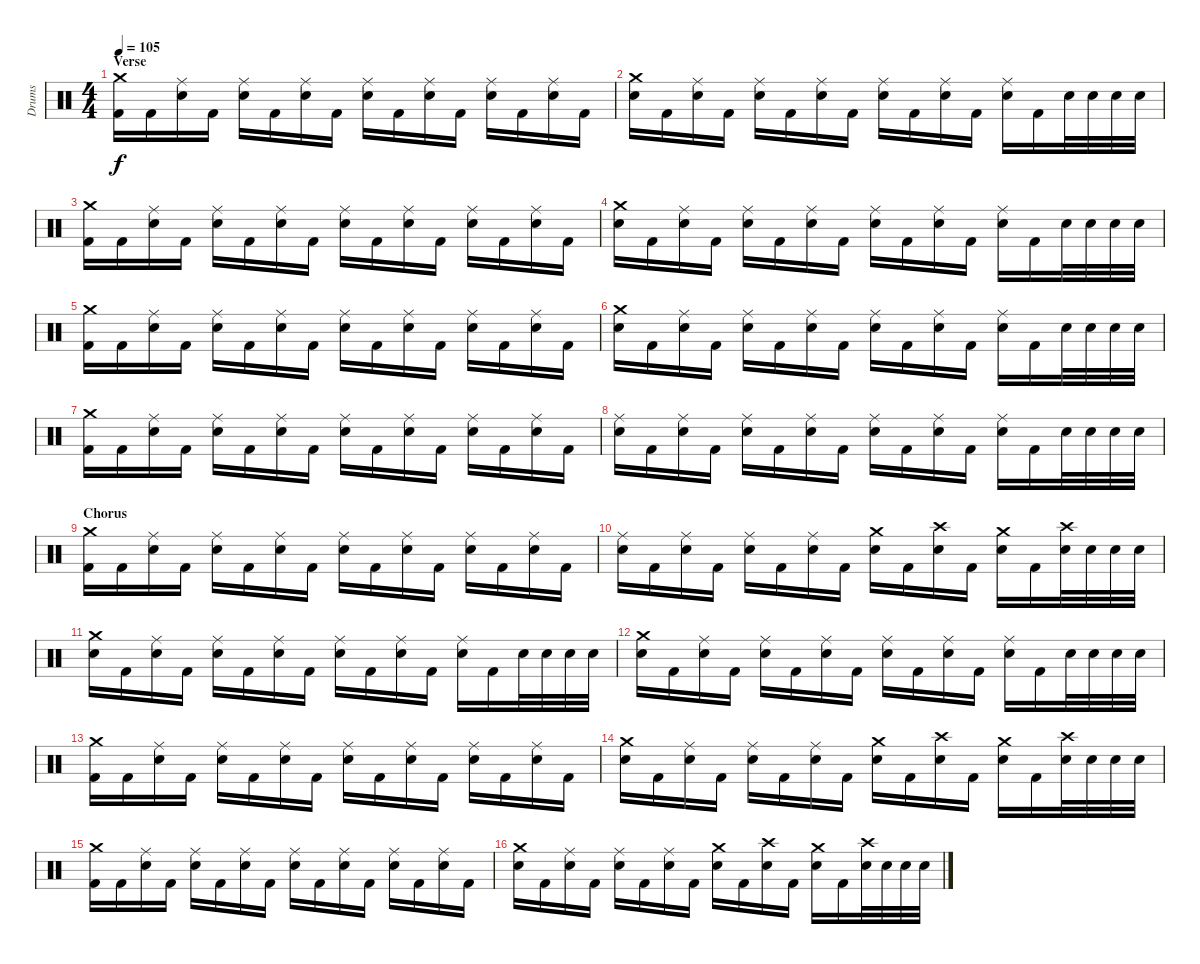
\track ("Drums" "Drums") {instrument percussion}
\staff {score}
\articulation defaults
\ts (4 4)
\section ("" "Verse")
\tempo 105
\clef neutral
\ks c
("Crash medium (hit)" "Kick (hit) 2").16{dy f} "Kick (hit) 2".16 ("Ride (middle)" "Electric Snare (hit)").16 "Kick (hit) 2".16 ("Ride (middle)" "Electric Snare (hit)").16 "Kick (hit) 2".16 ("Ride (middle)" "Electric Snare (hit)").16 "Kick (hit) 2".16 ("Ride (middle)" "Electric Snare (hit)").16 "Kick (hit) 2".16 ("Ride (middle)" "Electric Snare (hit)").16 "Kick (hit) 2".16 ("Ride (middle)" "Electric Snare (hit)").16 "Kick (hit) 2".16 ("Ride (middle)" "Electric Snare (hit)").16 "Kick (hit) 2".16 |
("Crash medium (hit)" "Electric Snare (hit)").16 "Kick (hit) 2".16 ("Ride (middle)" "Electric Snare (hit)").16 "Kick (hit) 2".16 ("Ride (middle)" "Electric Snare (hit)").16 "Kick (hit) 2".16 ("Ride (middle)" "Electric Snare (hit)").16 "Kick (hit) 2".16 ("Ride (middle)" "Electric Snare (hit)").16 "Kick (hit) 2".16 ("Ride (middle)" "Electric Snare (hit)").16 "Kick (hit) 2".16 ("Ride (middle)" "Electric Snare (hit)").16 "Kick (hit) 2".16 "Electric Snare (hit)".32 "Electric Snare (hit)".32 "Electric Snare (hit)".32 "Electric Snare (hit)".32 |
("Crash medium (hit)" "Kick (hit) 2").16 "Kick (hit) 2".16 ("Ride (middle)" "Electric Snare (hit)").16 "Kick (hit) 2".16 ("Ride (middle)" "Electric Snare (hit)").16 "Kick (hit) 2".16 ("Ride (middle)" "Electric Snare (hit)").16 "Kick (hit) 2".16 ("Ride (middle)" "Electric Snare (hit)").16 "Kick (hit) 2".16 ("Ride (middle)" "Electric Snare (hit)").16 "Kick (hit) 2".16 ("Ride (middle)" "Electric Snare (hit)").16 "Kick (hit) 2".16 ("Ride (middle)" "Electric Snare (hit)").16 "Kick (hit) 2".16 |
("Crash medium (hit)" "Electric Snare (hit)").16 "Kick (hit) 2".16 ("Ride (middle)" "Electric Snare (hit)").16 "Kick (hit) 2".16 ("Ride (middle)" "Electric Snare (hit)").16 "Kick (hit) 2".16 ("Ride (middle)" "Electric Snare (hit)").16 "Kick (hit) 2".16 ("Ride (middle)" "Electric Snare (hit)").16 "Kick (hit) 2".16 ("Ride (middle)" "Electric Snare (hit)").16 "Kick (hit) 2".16 ("Ride (middle)" "Electric Snare (hit)").16 "Kick (hit) 2".16 "Electric Snare (hit)".32 "Electric Snare (hit)".32 "Electric Snare (hit)".32 "Electric Snare (hit)".32 |
("Crash medium (hit)" "Kick (hit) 2").16 "Kick (hit) 2".16 ("Ride (middle)" "Electric Snare (hit)").16 "Kick (hit) 2".16 ("Ride (middle)" "Electric Snare (hit)").16 "Kick (hit) 2".16 ("Ride (middle)" "Electric Snare (hit)").16 "Kick (hit) 2".16 ("Ride (middle)" "Electric Snare (hit)").16 "Kick (hit) 2".16 ("Ride (middle)" "Electric Snare (hit)").16 "Kick (hit) 2".16 ("Ride (middle)" "Electric Snare (hit)").16 "Kick (hit) 2".16 ("Ride (middle)" "Electric Snare (hit)").16 "Kick (hit) 2".16 |
("Crash medium (hit)" "Electric Snare (hit)").16 "Kick (hit) 2".16 ("Ride (middle)" "Electric Snare (hit)").16 "Kick (hit) 2".16 ("Ride (middle)" "Electric Snare (hit)").16 "Kick (hit) 2".16 ("Ride (middle)" "Electric Snare (hit)").16 "Kick (hit) 2".16 ("Ride (middle)" "Electric Snare (hit)").16 "Kick (hit) 2".16 ("Ride (middle)" "Electric Snare (hit)").16 "Kick (hit) 2".16 ("Ride (middle)" "Electric Snare (hit)").16 "Kick (hit) 2".16 "Electric Snare (hit)".32 "Electric Snare (hit)".32 "Electric Snare (hit)".32 "Electric Snare (hit)".32 |
("Crash medium (hit)" "Kick (hit) 2").16 "Kick (hit) 2".16 ("Ride (middle)" "Electric Snare (hit)").16 "Kick (hit) 2".16 ("Ride (middle)" "Electric Snare (hit)").16 "Kick (hit) 2".16 ("Ride (middle)" "Electric Snare (hit)").16 "Kick (hit) 2".16 ("Ride (middle)" "Electric Snare (hit)").16 "Kick (hit) 2".16 ("Ride (middle)" "Electric Snare (hit)").16 "Kick (hit) 2".16 ("Ride (middle)" "Electric Snare (hit)").16 "Kick (hit) 2".16 ("Ride (middle)" "Electric Snare (hit)").16 "Kick (hit) 2".16 |
("Ride (middle)" "Electric Snare (hit)").16 "Kick (hit) 2".16 ("Ride (middle)" "Electric Snare (hit)").16 "Kick (hit) 2".16 ("Ride (middle)" "Electric Snare (hit)").16 "Kick (hit) 2".16 ("Ride (middle)" "Electric Snare (hit)").16 "Kick (hit) 2".16 ("Ride (middle)" "Electric Snare (hit)").16 "Kick (hit) 2".16 ("Ride (middle)" "Electric Snare (hit)").16 "Kick (hit) 2".16 ("Ride (middle)" "Electric Snare (hit)").16 "Kick (hit) 2".16 "Electric Snare (hit)".32 "Electric Snare (hit)".32 "Electric Snare (hit)".32 "Electric Snare (hit)".32 |
\section ("" "Chorus")
("Crash medium (hit)" "Kick (hit) 2").16 "Kick (hit) 2".16 ("Ride (middle)" "Electric Snare (hit)").16 "Kick (hit) 2".16 ("Ride (middle)" "Electric Snare (hit)").16 "Kick (hit) 2".16 ("Ride (middle)" "Electric Snare (hit)").16 "Kick (hit) 2".16 ("Ride (middle)" "Electric Snare (hit)").16 "Kick (hit) 2".16 ("Ride (middle)" "Electric Snare (hit)").16 "Kick (hit) 2".16 ("Ride (middle)" "Electric Snare (hit)").16 "Kick (hit) 2".16 ("Ride (middle)" "Electric Snare (hit)").16 "Kick (hit) 2".16 |
("Ride (middle)" "Electric Snare (hit)").16 "Kick (hit) 2".16 ("Ride (middle)" "Electric Snare (hit)").16 "Kick (hit) 2".16 ("Ride (middle)" "Electric Snare (hit)").16 "Kick (hit) 2".16 ("Ride (middle)" "Electric Snare (hit)").16 "Kick (hit) 2".16 ("Crash medium (hit)" "Electric Snare (hit)").16 "Kick (hit) 2".16 ("Crash high (hit)" "Electric Snare (hit)").16 "Kick (hit) 2".16 ("Crash medium (hit)" "Electric Snare (hit)").16 "Kick (hit) 2".16 ("Crash high (hit)" "Electric Snare (hit)").32 "Electric Snare (hit)".32 "Electric Snare (hit)".32 "Electric Snare (hit)".32 |
("Crash medium (hit)" "Electric Snare (hit)").16 "Kick (hit) 2".16 ("Ride (middle)" "Electric Snare (hit)").16 "Kick (hit) 2".16 ("Ride (middle)" "Electric Snare (hit)").16 "Kick (hit) 2".16 ("Ride (middle)" "Electric Snare (hit)").16 "Kick (hit) 2".16 ("Ride (middle)" "Electric Snare (hit)").16 "Kick (hit) 2".16 ("Ride (middle)" "Electric Snare (hit)").16 "Kick (hit) 2".16 ("Ride (middle)" "Electric Snare (hit)").16 "Kick (hit) 2".16 "Electric Snare (hit)".32 "Electric Snare (hit)".32 "Electric Snare (hit)".32 "Electric Snare (hit)".32 |
("Crash medium (hit)" "Electric Snare (hit)").16 "Kick (hit) 2".16 ("Ride (middle)" "Electric Snare (hit)").16 "Kick (hit) 2".16 ("Ride (middle)" "Electric Snare (hit)").16 "Kick (hit) 2".16 ("Ride (middle)" "Electric Snare (hit)").16 "Kick (hit) 2".16 ("Ride (middle)" "Electric Snare (hit)").16 "Kick (hit) 2".16 ("Ride (middle)" "Electric Snare (hit)").16 "Kick (hit) 2".16 ("Ride (middle)" "Electric Snare (hit)").16 "Kick (hit) 2".16 "Electric Snare (hit)".32 "Electric Snare (hit)".32 "Electric Snare (hit)".32 "Electric Snare (hit)".32 |
("Crash medium (hit)" "Kick (hit) 2").16 "Kick (hit) 2".16 ("Ride (middle)" "Electric Snare (hit)").16 "Kick (hit) 2".16 ("Ride (middle)" "Electric Snare (hit)").16 "Kick (hit) 2".16 ("Ride (middle)" "Electric Snare (hit)").16 "Kick (hit) 2".16 ("Ride (middle)" "Electric Snare (hit)").16 "Kick (hit) 2".16 ("Ride (middle)" "Electric Snare (hit)").16 "Kick (hit) 2".16 ("Ride (middle)" "Electric Snare (hit)").16 "Kick (hit) 2".16 ("Ride (middle)" "Electric Snare (hit)").16 "Kick (hit) 2".16 |
("Crash medium (hit)" "Electric Snare (hit)").16 "Kick (hit) 2".16 ("Ride (middle)" "Electric Snare (hit)").16 "Kick (hit) 2".16 ("Ride (middle)" "Electric Snare (hit)").16 "Kick (hit) 2".16 ("Ride (middle)" "Electric Snare (hit)").16 "Kick (hit) 2".16 ("Crash medium (hit)" "Electric Snare (hit)").16 "Kick (hit) 2".16 ("Crash high (hit)" "Electric Snare (hit)").16 "Kick (hit) 2".16 ("Crash medium (hit)" "Electric Snare (hit)").16 "Kick (hit) 2".16 ("Crash high (hit)" "Electric Snare (hit)").32 "Electric Snare (hit)".32 "Electric Snare (hit)".32 "Electric Snare (hit)".32 |
("Crash medium (hit)" "Kick (hit) 2").16 "Kick (hit) 2".16 ("Ride (middle)" "Electric Snare (hit)").16 "Kick (hit) 2".16 ("Ride (middle)" "Electric Snare (hit)").16 "Kick (hit) 2".16 ("Ride (middle)" "Electric Snare (hit)").16 "Kick (hit) 2".16 ("Ride (middle)" "Electric Snare (hit)").16 "Kick (hit) 2".16 ("Ride (middle)" "Electric Snare (hit)").16 "Kick (hit) 2".16 ("Ride (middle)" "Electric Snare (hit)").16 "Kick (hit) 2".16 ("Ride (middle)" "Electric Snare (hit)").16 "Kick (hit) 2".16 |
("Crash medium (hit)" "Electric Snare (hit)").16 "Kick (hit) 2".16 ("Ride (middle)" "Electric Snare (hit)").16 "Kick (hit) 2".16 ("Ride (middle)" "Electric Snare (hit)").16 "Kick (hit) 2".16 ("Ride (middle)" "Electric Snare (hit)").16 "Kick (hit) 2".16 ("Crash medium (hit)" "Electric Snare (hit)").16 "Kick (hit) 2".16 ("Crash high (hit)" "Electric Snare (hit)").16 "Kick (hit) 2".16 ("Crash medium (hit)" "Electric Snare (hit)").16 "Kick (hit) 2".16 ("Crash high (hit)" "Electric Snare (hit)").32 "Electric Snare (hit)".32 "Electric Snare (hit)".32 "Electric Snare (hit)".32
